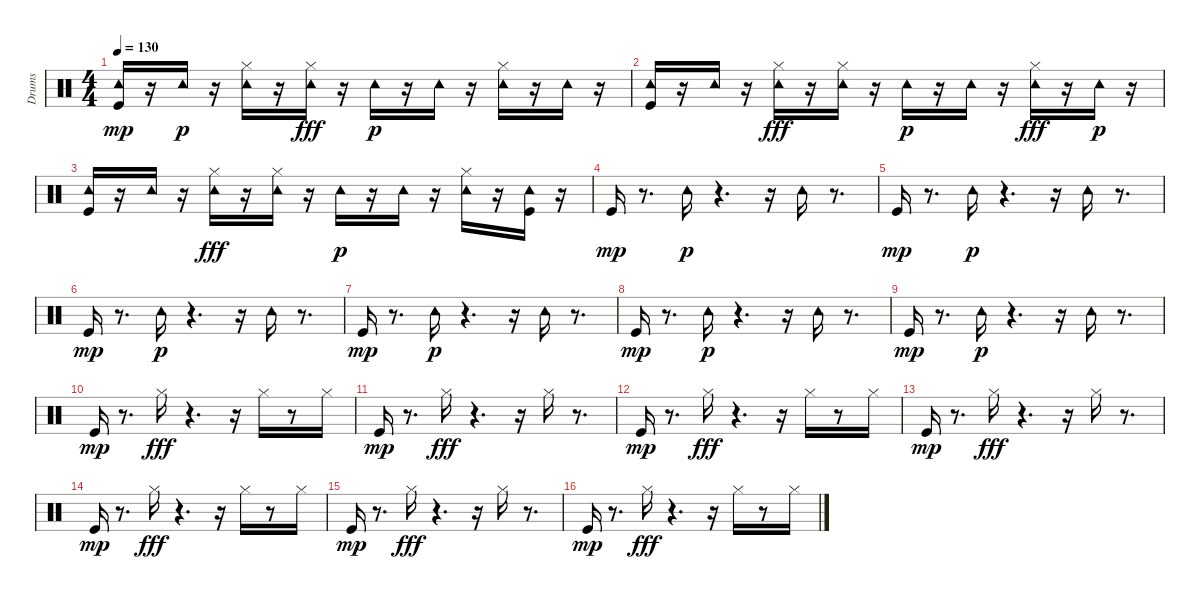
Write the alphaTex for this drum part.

\track ("Drums" "Drums") {instrument percussion}
\staff {score}
\articulation defaults
\ts (4 4)
\tempo 130
\clef neutral
\ks c
("Tambourine (hit)" "Kick (hit)").16{dy mp} r.16 "Tambourine (hit)".16{dy p} r.16 ("Hi-Hat (closed)" "Tambourine (hit)").16 r.16 ("Tambourine (hit)" "Hi-Hat (closed)").16{dy fff} r.16 "Tambourine (hit)".16{dy p} r.16 "Tambourine (hit)".16 r.16 ("Hi-Hat (closed)" "Tambourine (hit)").16 r.16 "Tambourine (hit)".16 r.16 |
("Kick (hit)" "Tambourine (hit)").16 r.16 "Tambourine (hit)".16 r.16 ("Tambourine (hit)" "Hi-Hat (closed)").16{dy fff} r.16 ("Tambourine (hit)" "Hi-Hat (closed)").16 r.16 "Tambourine (hit)".16{dy p} r.16 "Tambourine (hit)".16 r.16 ("Tambourine (hit)" "Hi-Hat (closed)").16{dy fff} r.16 "Tambourine (hit)".16{dy p} r.16 |
("Kick (hit)" "Tambourine (hit)").16 r.16 "Tambourine (hit)".16 r.16 ("Tambourine (hit)" "Hi-Hat (closed)").16{dy fff} r.16 ("Tambourine (hit)" "Hi-Hat (closed)").16 r.16 "Tambourine (hit)".16{dy p} r.16 "Tambourine (hit)".16 r.16 ("Hi-Hat (closed)" "Tambourine (hit)").16 r.16 ("Kick (hit)" "Tambourine (hit)").16 r.16 |
"Kick (hit)".16{dy mp} r.8{d} "Tambourine (hit)".16{dy p} r.4{d} r.16 "Tambourine (hit)".16 r.8{d} |
"Kick (hit)".16{dy mp} r.8{d} "Tambourine (hit)".16{dy p} r.4{d} r.16 "Tambourine (hit)".16 r.8{d} |
"Kick (hit)".16{dy mp} r.8{d} "Tambourine (hit)".16{dy p} r.4{d} r.16 "Tambourine (hit)".16 r.8{d} |
"Kick (hit)".16{dy mp} r.8{d} "Tambourine (hit)".16{dy p} r.4{d} r.16 "Tambourine (hit)".16 r.8{d} |
"Kick (hit)".16{dy mp} r.8{d} "Tambourine (hit)".16{dy p} r.4{d} r.16 "Tambourine (hit)".16 r.8{d} |
"Kick (hit)".16{dy mp} r.8{d} "Tambourine (hit)".16{dy p} r.4{d} r.16 "Tambourine (hit)".16 r.8{d} |
"Kick (hit)".16{dy mp} r.8{d} "Hi-Hat (closed)".16{dy fff} r.4{d} r.16 "Hi-Hat (closed)".16 r.8 "Hi-Hat (closed)".16 |
"Kick (hit)".16{dy mp} r.8{d} "Hi-Hat (closed)".16{dy fff} r.4{d} r.16 "Hi-Hat (closed)".16 r.8{d} |
"Kick (hit)".16{dy mp} r.8{d} "Hi-Hat (closed)".16{dy fff} r.4{d} r.16 "Hi-Hat (closed)".16 r.8 "Hi-Hat (closed)".16 |
"Kick (hit)".16{dy mp} r.8{d} "Hi-Hat (closed)".16{dy fff} r.4{d} r.16 "Hi-Hat (closed)".16 r.8{d} |
"Kick (hit)".16{dy mp} r.8{d} "Hi-Hat (closed)".16{dy fff} r.4{d} r.16 "Hi-Hat (closed)".16 r.8 "Hi-Hat (closed)".16 |
"Kick (hit)".16{dy mp} r.8{d} "Hi-Hat (closed)".16{dy fff} r.4{d} r.16 "Hi-Hat (closed)".16 r.8{d} |
"Kick (hit)".16{dy mp} r.8{d} "Hi-Hat (closed)".16{dy fff} r.4{d} r.16 "Hi-Hat (closed)".16 r.8 "Hi-Hat (closed)".16
